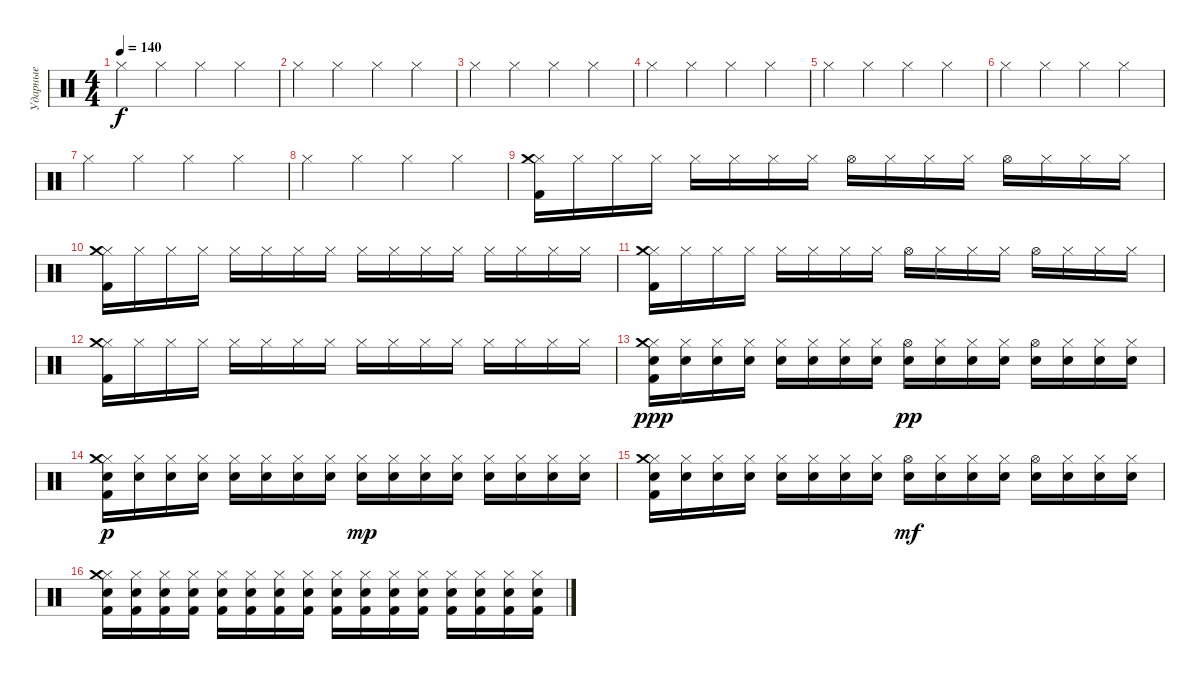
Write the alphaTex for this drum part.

\track ("Ударные" "Ударные") {instrument percussion}
\staff {score}
\articulation defaults
\ts (4 4)
\tempo 140
\clef neutral
\ks c "Hi-Hat (closed)".4{dy f} "Hi-Hat (closed)".4 "Hi-Hat (closed)".4 "Hi-Hat (closed)".4
|
"Hi-Hat (closed)".4 "Hi-Hat (closed)".4 "Hi-Hat (closed)".4 "Hi-Hat (closed)".4 |
"Hi-Hat (closed)".4 "Hi-Hat (closed)".4 "Hi-Hat (closed)".4 "Hi-Hat (closed)".4 |
"Hi-Hat (closed)".4 "Hi-Hat (closed)".4 "Hi-Hat (closed)".4 "Hi-Hat (closed)".4 |
"Hi-Hat (closed)".4 "Hi-Hat (closed)".4 "Hi-Hat (closed)".4 "Hi-Hat (closed)".4 |
"Hi-Hat (closed)".4 "Hi-Hat (closed)".4 "Hi-Hat (closed)".4 "Hi-Hat (closed)".4 |
"Hi-Hat (closed)".4 "Hi-Hat (closed)".4 "Hi-Hat (closed)".4 "Hi-Hat (closed)".4 |
"Hi-Hat (closed)".4 "Hi-Hat (closed)".4 "Hi-Hat (closed)".4 "Hi-Hat (closed)".4 |
("Hi-Hat (closed)" "Kick (hit) 2" "Crash medium (hit)").16 "Hi-Hat (closed)".16 "Hi-Hat (closed)".16 "Hi-Hat (closed)".16 "Hi-Hat (closed)".16 "Hi-Hat (closed)".16 "Hi-Hat (closed)".16 "Hi-Hat (closed)".16 "Hi-Hat (open)".16 "Hi-Hat (closed)".16 "Hi-Hat (closed)".16 "Hi-Hat (closed)".16 "Hi-Hat (open)".16 "Hi-Hat (closed)".16 "Hi-Hat (closed)".16 "Hi-Hat (closed)".16 |
("Hi-Hat (closed)" "Kick (hit) 2" "Crash medium (hit)").16 "Hi-Hat (closed)".16 "Hi-Hat (closed)".16 "Hi-Hat (closed)".16 "Hi-Hat (closed)".16 "Hi-Hat (closed)".16 "Hi-Hat (closed)".16 "Hi-Hat (closed)".16 "Hi-Hat (closed)".16 "Hi-Hat (closed)".16 "Hi-Hat (closed)".16 "Hi-Hat (closed)".16 "Hi-Hat (closed)".16 "Hi-Hat (closed)".16 "Hi-Hat (closed)".16 "Hi-Hat (closed)".16 |
("Hi-Hat (closed)" "Kick (hit) 2" "Crash medium (hit)").16 "Hi-Hat (closed)".16 "Hi-Hat (closed)".16 "Hi-Hat (closed)".16 "Hi-Hat (closed)".16 "Hi-Hat (closed)".16 "Hi-Hat (closed)".16 "Hi-Hat (closed)".16 "Hi-Hat (open)".16 "Hi-Hat (closed)".16 "Hi-Hat (closed)".16 "Hi-Hat (closed)".16 "Hi-Hat (open)".16 "Hi-Hat (closed)".16 "Hi-Hat (closed)".16 "Hi-Hat (closed)".16 |
("Hi-Hat (closed)" "Kick (hit) 2" "Crash medium (hit)").16 "Hi-Hat (closed)".16 "Hi-Hat (closed)".16 "Hi-Hat (closed)".16 "Hi-Hat (closed)".16 "Hi-Hat (closed)".16 "Hi-Hat (closed)".16 "Hi-Hat (closed)".16 "Hi-Hat (closed)".16 "Hi-Hat (closed)".16 "Hi-Hat (closed)".16 "Hi-Hat (closed)".16 "Hi-Hat (closed)".16 "Hi-Hat (closed)".16 "Hi-Hat (closed)".16 "Hi-Hat (closed)".16 |
("Hi-Hat (closed)" "Kick (hit) 2" "Crash medium (hit)" "Electric Snare (hit)").16{dy ppp} ("Hi-Hat (closed)" "Electric Snare (hit)").16 ("Hi-Hat (closed)" "Electric Snare (hit)").16 ("Hi-Hat (closed)" "Electric Snare (hit)").16 ("Hi-Hat (closed)" "Electric Snare (hit)").16 ("Hi-Hat (closed)" "Electric Snare (hit)").16 ("Hi-Hat (closed)" "Electric Snare (hit)").16 ("Hi-Hat (closed)" "Electric Snare (hit)").16 ("Hi-Hat (open)" "Electric Snare (hit)").16{dy pp} ("Hi-Hat (closed)" "Electric Snare (hit)").16 ("Hi-Hat (closed)" "Electric Snare (hit)").16 ("Hi-Hat (closed)" "Electric Snare (hit)").16 ("Hi-Hat (open)" "Electric Snare (hit)").16 ("Hi-Hat (closed)" "Electric Snare (hit)").16 ("Hi-Hat (closed)" "Electric Snare (hit)").16 ("Hi-Hat (closed)" "Electric Snare (hit)").16 |
("Hi-Hat (closed)" "Kick (hit) 2" "Crash medium (hit)" "Electric Snare (hit)").16{dy p} ("Hi-Hat (closed)" "Electric Snare (hit)").16 ("Hi-Hat (closed)" "Electric Snare (hit)").16 ("Hi-Hat (closed)" "Electric Snare (hit)").16 ("Hi-Hat (closed)" "Electric Snare (hit)").16 ("Hi-Hat (closed)" "Electric Snare (hit)").16 ("Hi-Hat (closed)" "Electric Snare (hit)").16 ("Hi-Hat (closed)" "Electric Snare (hit)").16 ("Hi-Hat (closed)" "Electric Snare (hit)").16{dy mp} ("Hi-Hat (closed)" "Electric Snare (hit)").16 ("Hi-Hat (closed)" "Electric Snare (hit)").16 ("Hi-Hat (closed)" "Electric Snare (hit)").16 ("Hi-Hat (closed)" "Electric Snare (hit)").16 ("Hi-Hat (closed)" "Electric Snare (hit)").16 ("Hi-Hat (closed)" "Electric Snare (hit)").16 ("Hi-Hat (closed)" "Electric Snare (hit)").16 |
("Hi-Hat (closed)" "Kick (hit) 2" "Crash medium (hit)" "Electric Snare (hit)").16 ("Hi-Hat (closed)" "Electric Snare (hit)").16 ("Hi-Hat (closed)" "Electric Snare (hit)").16 ("Hi-Hat (closed)" "Electric Snare (hit)").16 ("Hi-Hat (closed)" "Electric Snare (hit)").16 ("Hi-Hat (closed)" "Electric Snare (hit)").16 ("Hi-Hat (closed)" "Electric Snare (hit)").16 ("Hi-Hat (closed)" "Electric Snare (hit)").16 ("Hi-Hat (open)" "Electric Snare (hit)").16{dy mf} ("Hi-Hat (closed)" "Electric Snare (hit)").16 ("Hi-Hat (closed)" "Electric Snare (hit)").16 ("Hi-Hat (closed)" "Electric Snare (hit)").16 ("Hi-Hat (open)" "Electric Snare (hit)").16 ("Hi-Hat (closed)" "Electric Snare (hit)").16 ("Hi-Hat (closed)" "Electric Snare (hit)").16 ("Hi-Hat (closed)" "Electric Snare (hit)").16 |
("Hi-Hat (closed)" "Kick (hit) 2" "Crash medium (hit)" "Electric Snare (hit)").16 ("Hi-Hat (closed)" "Kick (hit) 2" "Electric Snare (hit)").16 ("Hi-Hat (closed)" "Kick (hit) 2" "Electric Snare (hit)").16 ("Hi-Hat (closed)" "Kick (hit) 2" "Electric Snare (hit)").16 ("Hi-Hat (closed)" "Kick (hit) 2" "Electric Snare (hit)").16 ("Hi-Hat (closed)" "Kick (hit) 2" "Electric Snare (hit)").16 ("Hi-Hat (closed)" "Kick (hit) 2" "Electric Snare (hit)").16 ("Hi-Hat (closed)" "Kick (hit) 2" "Electric Snare (hit)").16 ("Hi-Hat (closed)" "Kick (hit) 2" "Electric Snare (hit)").16 ("Hi-Hat (closed)" "Kick (hit) 2" "Electric Snare (hit)").16 ("Hi-Hat (closed)" "Kick (hit) 2" "Electric Snare (hit)").16 ("Hi-Hat (closed)" "Kick (hit) 2" "Electric Snare (hit)").16 ("Hi-Hat (closed)" "Kick (hit) 2" "Electric Snare (hit)").16 ("Hi-Hat (closed)" "Kick (hit) 2" "Electric Snare (hit)").16 ("Hi-Hat (closed)" "Kick (hit) 2" "Electric Snare (hit)").16 ("Hi-Hat (closed)" "Kick (hit) 2" "Electric Snare (hit)").16
